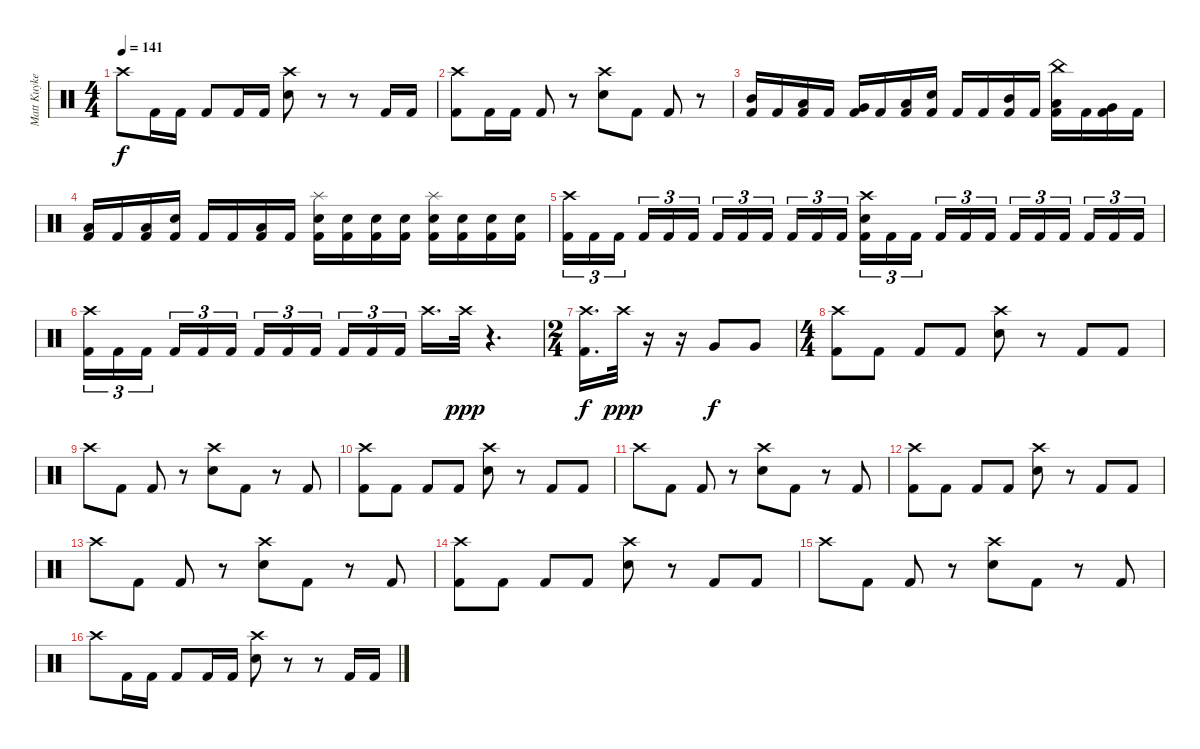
\track ("Matt Kuykendall" "Matt Kuyke") {instrument percussion}
\staff {score}
\articulation defaults
\ts (4 4)
\tempo 141
\clef neutral
\ks c "Crash high (hit)".8{dy f} "Kick (hit) 2".16 "Kick (hit) 2".16 "Kick (hit) 2".8 "Kick (hit) 2".16 "Kick (hit) 2".16
("Crash high (hit)" "Electric Snare (hit)").8 r.8 r.8 "Kick (hit) 2".16 "Kick (hit) 2".16 |
("Crash high (hit)" "Kick (hit) 2").8 "Kick (hit) 2".16 "Kick (hit) 2".16 "Kick (hit) 2".8 r.8 ("Crash high (hit)" "Electric Snare (hit)").8 "Kick (hit) 2".8 "Kick (hit) 2".8 r.8 |
("Mid Tom (hit)" "Kick (hit) 2").16 "Kick (hit) 2".16 ("Low Tom (hit)" "Kick (hit) 2").16 "Kick (hit) 2".16 ("Very Low Tom (hit)" "Kick (hit) 2").16 "Kick (hit) 2".16 ("Low Floor Tom (hit)" "Kick (hit) 2").16 ("Electric Snare (hit)" "Kick (hit) 2").16 "Kick (hit) 2".16 "Kick (hit) 2".16 ("Mid Tom (hit)" "Kick (hit) 2").16 "Kick (hit) 2".16 ("China (hit)" "Low Tom (hit)" "Kick (hit) 2").16 "Kick (hit) 2".16 ("Very Low Tom (hit)" "Kick (hit) 2").16 "Kick (hit) 2".16 |
("Low Tom (hit)" "Kick (hit) 2").16 "Kick (hit) 2".16 ("Low Floor Tom (hit)" "Kick (hit) 2").16 ("Electric Snare (hit)" "Kick (hit) 2").16 "Kick (hit) 2".16 "Kick (hit) 2".16 ("Low Tom (hit)" "Kick (hit) 2").16 "Kick (hit) 2".16 ("Splash (hit)" "Electric Snare (hit)" "Kick (hit) 2").16 ("Electric Snare (hit)" "Kick (hit) 2").16 ("Electric Snare (hit)" "Kick (hit) 2").16 ("Electric Snare (hit)" "Kick (hit) 2").16 ("Splash (hit)" "Electric Snare (hit)" "Kick (hit) 2").16 ("Electric Snare (hit)" "Kick (hit) 2").16 ("Electric Snare (hit)" "Kick (hit) 2").16 ("Electric Snare (hit)" "Kick (hit) 2").16 |
("Crash high (hit)" "Kick (hit) 2").16{tu (3 2)} "Kick (hit) 2".16{tu (3 2)} "Kick (hit) 2".16{tu (3 2) beam splitsecondary} "Kick (hit) 2".16{tu (3 2)} "Kick (hit) 2".16{tu (3 2)} "Kick (hit) 2".16{tu (3 2)} "Kick (hit) 2".16{tu (3 2)} "Kick (hit) 2".16{tu (3 2)} "Kick (hit) 2".16{tu (3 2) beam splitsecondary} "Kick (hit) 2".16{tu (3 2)} "Kick (hit) 2".16{tu (3 2)} "Kick (hit) 2".16{tu (3 2)} ("Crash high (hit)" "Electric Snare (hit)" "Kick (hit) 2").16{tu (3 2)} "Kick (hit) 2".16{tu (3 2)} "Kick (hit) 2".16{tu (3 2) beam splitsecondary} "Kick (hit) 2".16{tu (3 2)} "Kick (hit) 2".16{tu (3 2)} "Kick (hit) 2".16{tu (3 2)} "Kick (hit) 2".16{tu (3 2)} "Kick (hit) 2".16{tu (3 2)} "Kick (hit) 2".16{tu (3 2) beam splitsecondary} "Kick (hit) 2".16{tu (3 2)} "Kick (hit) 2".16{tu (3 2)} "Kick (hit) 2".16{tu (3 2)} |
("Crash high (hit)" "Kick (hit) 2").16{tu (3 2)} "Kick (hit) 2".16{tu (3 2)} "Kick (hit) 2".16{tu (3 2) beam splitsecondary} "Kick (hit) 2".16{tu (3 2)} "Kick (hit) 2".16{tu (3 2)} "Kick (hit) 2".16{tu (3 2)} "Kick (hit) 2".16{tu (3 2)} "Kick (hit) 2".16{tu (3 2)} "Kick (hit) 2".16{tu (3 2) beam splitsecondary} "Kick (hit) 2".16{tu (3 2)} "Kick (hit) 2".16{tu (3 2)} "Kick (hit) 2".16{tu (3 2)} "Crash high (hit)".16{d} "Crash high (hit)".32{dy ppp} r.4{d} |
\ts (2 4)
("Crash high (hit)" "Kick (hit) 2").16{d dy f} "Crash high (hit)".32{dy ppp} r.16 r.16 "Very Low Tom (hit)".8{dy f} "Very Low Tom (hit)".8 |
\ts (4 4)
("Crash high (hit)" "Kick (hit) 2").8 "Kick (hit) 2".8 "Kick (hit) 2".8 "Kick (hit) 2".8 ("Crash high (hit)" "Electric Snare (hit)").8 r.8 "Kick (hit) 2".8 "Kick (hit) 2".8 |
"Crash high (hit)".8 "Kick (hit) 2".8 "Kick (hit) 2".8 r.8 ("Crash high (hit)" "Electric Snare (hit)").8 "Kick (hit) 2".8 r.8 "Kick (hit) 2".8 |
("Crash high (hit)" "Kick (hit) 2").8 "Kick (hit) 2".8 "Kick (hit) 2".8 "Kick (hit) 2".8 ("Crash high (hit)" "Electric Snare (hit)").8 r.8 "Kick (hit) 2".8 "Kick (hit) 2".8 |
"Crash high (hit)".8 "Kick (hit) 2".8 "Kick (hit) 2".8 r.8 ("Crash high (hit)" "Electric Snare (hit)").8 "Kick (hit) 2".8 r.8 "Kick (hit) 2".8 |
("Crash high (hit)" "Kick (hit) 2").8 "Kick (hit) 2".8 "Kick (hit) 2".8 "Kick (hit) 2".8 ("Crash high (hit)" "Electric Snare (hit)").8 r.8 "Kick (hit) 2".8 "Kick (hit) 2".8 |
"Crash high (hit)".8 "Kick (hit) 2".8 "Kick (hit) 2".8 r.8 ("Crash high (hit)" "Electric Snare (hit)").8 "Kick (hit) 2".8 r.8 "Kick (hit) 2".8 |
("Crash high (hit)" "Kick (hit) 2").8 "Kick (hit) 2".8 "Kick (hit) 2".8 "Kick (hit) 2".8 ("Crash high (hit)" "Electric Snare (hit)").8 r.8 "Kick (hit) 2".8 "Kick (hit) 2".8 |
"Crash high (hit)".8 "Kick (hit) 2".8 "Kick (hit) 2".8 r.8 ("Crash high (hit)" "Electric Snare (hit)").8 "Kick (hit) 2".8 r.8 "Kick (hit) 2".8 |
"Crash high (hit)".8 "Kick (hit) 2".16 "Kick (hit) 2".16 "Kick (hit) 2".8 "Kick (hit) 2".16 "Kick (hit) 2".16 ("Crash high (hit)" "Electric Snare (hit)").8 r.8 r.8 "Kick (hit) 2".16 "Kick (hit) 2".16
